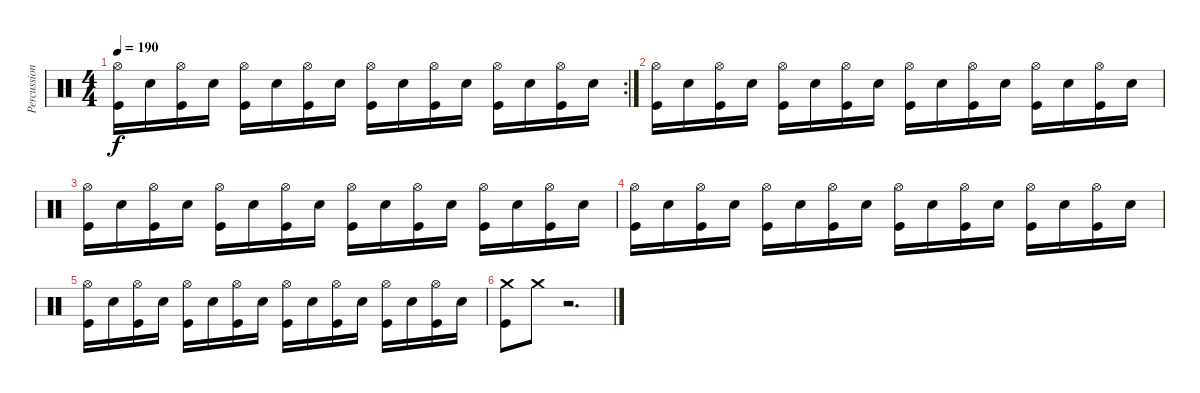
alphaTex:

\track ("Percussion" "Percussion") {instrument percussion}
\staff {score}
\articulation defaults
\rc 2
\ts (4 4)
\tempo 190
\clef neutral
\ks c
("Hi-Hat (open)" "Kick (hit)").16{dy f} "Snare (hit) 2".16 ("Hi-Hat (open)" "Kick (hit)").16 "Snare (hit) 2".16 ("Hi-Hat (open)" "Kick (hit)").16 "Snare (hit) 2".16 ("Hi-Hat (open)" "Kick (hit)").16 "Snare (hit) 2".16 ("Hi-Hat (open)" "Kick (hit)").16 "Snare (hit) 2".16 ("Hi-Hat (open)" "Kick (hit)").16 "Snare (hit) 2".16 ("Hi-Hat (open)" "Kick (hit)").16 "Snare (hit) 2".16 ("Hi-Hat (open)" "Kick (hit)").16 "Snare (hit) 2".16 |
("Hi-Hat (open)" "Kick (hit)").16 "Snare (hit) 2".16 ("Hi-Hat (open)" "Kick (hit)").16 "Snare (hit) 2".16 ("Hi-Hat (open)" "Kick (hit)").16 "Snare (hit) 2".16 ("Hi-Hat (open)" "Kick (hit)").16 "Snare (hit) 2".16 ("Hi-Hat (open)" "Kick (hit)").16 "Snare (hit) 2".16 ("Hi-Hat (open)" "Kick (hit)").16 "Snare (hit) 2".16 ("Hi-Hat (open)" "Kick (hit)").16 "Snare (hit) 2".16 ("Hi-Hat (open)" "Kick (hit)").16 "Snare (hit) 2".16 |
("Hi-Hat (open)" "Kick (hit)").16 "Snare (hit) 2".16 ("Hi-Hat (open)" "Kick (hit)").16 "Snare (hit) 2".16 ("Hi-Hat (open)" "Kick (hit)").16 "Snare (hit) 2".16 ("Hi-Hat (open)" "Kick (hit)").16 "Snare (hit) 2".16 ("Hi-Hat (open)" "Kick (hit)").16 "Snare (hit) 2".16 ("Hi-Hat (open)" "Kick (hit)").16 "Snare (hit) 2".16 ("Hi-Hat (open)" "Kick (hit)").16 "Snare (hit) 2".16 ("Hi-Hat (open)" "Kick (hit)").16 "Snare (hit) 2".16 |
("Hi-Hat (open)" "Kick (hit)").16 "Snare (hit) 2".16 ("Hi-Hat (open)" "Kick (hit)").16 "Snare (hit) 2".16 ("Hi-Hat (open)" "Kick (hit)").16 "Snare (hit) 2".16 ("Hi-Hat (open)" "Kick (hit)").16 "Snare (hit) 2".16 ("Hi-Hat (open)" "Kick (hit)").16 "Snare (hit) 2".16 ("Hi-Hat (open)" "Kick (hit)").16 "Snare (hit) 2".16 ("Hi-Hat (open)" "Kick (hit)").16 "Snare (hit) 2".16 ("Hi-Hat (open)" "Kick (hit)").16 "Snare (hit) 2".16 |
("Hi-Hat (open)" "Kick (hit)").16 "Snare (hit) 2".16 ("Hi-Hat (open)" "Kick (hit)").16 "Snare (hit) 2".16 ("Hi-Hat (open)" "Kick (hit)").16 "Snare (hit) 2".16 ("Hi-Hat (open)" "Kick (hit)").16 "Snare (hit) 2".16 ("Hi-Hat (open)" "Kick (hit)").16 "Snare (hit) 2".16 ("Hi-Hat (open)" "Kick (hit)").16 "Snare (hit) 2".16 ("Hi-Hat (open)" "Kick (hit)").16 "Snare (hit) 2".16 ("Hi-Hat (open)" "Kick (hit)").16 "Snare (hit) 2".16 |
("Crash medium (hit)" "Kick (hit)").8 "Crash medium (hit)".8{volume 0} r.2{d}
